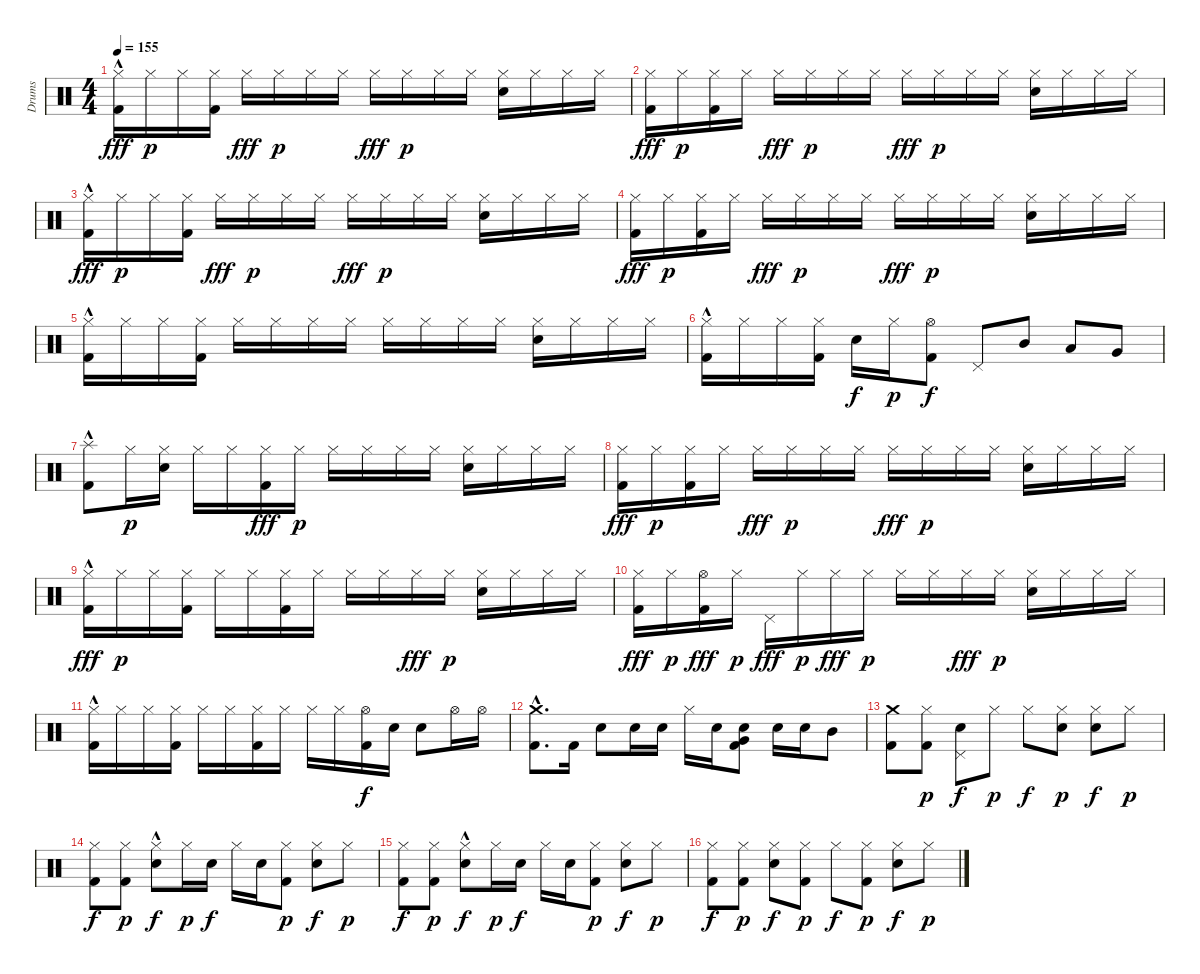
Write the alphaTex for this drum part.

\track ("Drums" "Drums") {instrument percussion}
\staff {score}
\articulation defaults
\ts (4 4)
\tempo 155
\clef neutral
\ks c
("Hi-Hat (closed)" "Kick (hit) 2"{hac}).16{dy fff} "Hi-Hat (closed)".16{dy p} "Hi-Hat (closed)".16 ("Hi-Hat (closed)" "Kick (hit) 2").16 "Hi-Hat (closed)".16{dy fff} "Hi-Hat (closed)".16{dy p} "Hi-Hat (closed)".16 "Hi-Hat (closed)".16 "Hi-Hat (closed)".16{dy fff} "Hi-Hat (closed)".16{dy p} "Hi-Hat (closed)".16 "Hi-Hat (closed)".16 ("Hi-Hat (closed)" "Snare (hit) 2").16 "Hi-Hat (closed)".16 "Hi-Hat (closed)".16 "Hi-Hat (closed)".16 |
("Hi-Hat (closed)" "Kick (hit) 2").16{dy fff} "Hi-Hat (closed)".16{dy p} ("Hi-Hat (closed)" "Kick (hit) 2").16 "Hi-Hat (closed)".16 "Hi-Hat (closed)".16{dy fff} "Hi-Hat (closed)".16{dy p} "Hi-Hat (closed)".16 "Hi-Hat (closed)".16 "Hi-Hat (closed)".16{dy fff} "Hi-Hat (closed)".16{dy p} "Hi-Hat (closed)".16 "Hi-Hat (closed)".16 ("Hi-Hat (closed)" "Snare (hit) 2").16 "Hi-Hat (closed)".16 "Hi-Hat (closed)".16 "Hi-Hat (closed)".16 |
("Hi-Hat (closed)" "Kick (hit) 2"{hac}).16{dy fff} "Hi-Hat (closed)".16{dy p} "Hi-Hat (closed)".16 ("Hi-Hat (closed)" "Kick (hit) 2").16 "Hi-Hat (closed)".16{dy fff} "Hi-Hat (closed)".16{dy p} "Hi-Hat (closed)".16 "Hi-Hat (closed)".16 "Hi-Hat (closed)".16{dy fff} "Hi-Hat (closed)".16{dy p} "Hi-Hat (closed)".16 "Hi-Hat (closed)".16 ("Hi-Hat (closed)" "Snare (hit) 2").16 "Hi-Hat (closed)".16 "Hi-Hat (closed)".16 "Hi-Hat (closed)".16 |
("Hi-Hat (closed)" "Kick (hit) 2").16{dy fff} "Hi-Hat (closed)".16{dy p} ("Hi-Hat (closed)" "Kick (hit) 2").16 "Hi-Hat (closed)".16 "Hi-Hat (closed)".16{dy fff} "Hi-Hat (closed)".16{dy p} "Hi-Hat (closed)".16 "Hi-Hat (closed)".16 "Hi-Hat (closed)".16{dy fff} "Hi-Hat (closed)".16{dy p} "Hi-Hat (closed)".16 "Hi-Hat (closed)".16 ("Hi-Hat (closed)" "Snare (hit) 2").16 "Hi-Hat (closed)".16 "Hi-Hat (closed)".16 "Hi-Hat (closed)".16 |
("Hi-Hat (closed)" "Kick (hit) 2"{hac}).16 "Hi-Hat (closed)".16 "Hi-Hat (closed)".16 ("Hi-Hat (closed)" "Kick (hit) 2").16 "Hi-Hat (closed)".16 "Hi-Hat (closed)".16 "Hi-Hat (closed)".16 "Hi-Hat (closed)".16 "Hi-Hat (closed)".16 "Hi-Hat (closed)".16 "Hi-Hat (closed)".16 "Hi-Hat (closed)".16 ("Hi-Hat (closed)" "Snare (hit) 2").16 "Hi-Hat (closed)".16 "Hi-Hat (closed)".16 "Hi-Hat (closed)".16 |
("Hi-Hat (closed)" "Kick (hit) 2"{hac}).16 "Hi-Hat (closed)".16 "Hi-Hat (closed)".16 ("Hi-Hat (closed)" "Kick (hit) 2").16 "Snare (hit) 2".16{dy f} "Hi-Hat (closed)".16{dy p} ("Kick (hit) 2" "Hi-Hat (open)").8{dy f} "Pedal Hi-Hat (hit)".8 "Mid Tom (hit)".8 "Low Tom (hit)".8 "Very Low Tom (hit)".8 |
("Kick (hit) 2"{hac} "Splash (hit)").8 "Hi-Hat (closed)".16{dy p} ("Snare (hit)" "Hi-Hat (closed)").16 "Hi-Hat (closed)".16 "Hi-Hat (closed)".16 ("Hi-Hat (closed)" "Kick (hit) 2").16{dy fff} "Hi-Hat (closed)".16{dy p} "Hi-Hat (closed)".16 "Hi-Hat (closed)".16 "Hi-Hat (closed)".16 "Hi-Hat (closed)".16 ("Hi-Hat (closed)" "Snare (hit) 2").16 "Hi-Hat (closed)".16 "Hi-Hat (closed)".16 "Hi-Hat (closed)".16 |
("Hi-Hat (closed)" "Kick (hit) 2").16{dy fff} "Hi-Hat (closed)".16{dy p} ("Hi-Hat (closed)" "Kick (hit) 2").16 "Hi-Hat (closed)".16 "Hi-Hat (closed)".16{dy fff} "Hi-Hat (closed)".16{dy p} "Hi-Hat (closed)".16 "Hi-Hat (closed)".16 "Hi-Hat (closed)".16{dy fff} "Hi-Hat (closed)".16{dy p} "Hi-Hat (closed)".16 "Hi-Hat (closed)".16 ("Hi-Hat (closed)" "Snare (hit) 2").16 "Hi-Hat (closed)".16 "Hi-Hat (closed)".16 "Hi-Hat (closed)".16 |
("Hi-Hat (closed)" "Kick (hit) 2"{hac}).16{dy fff} "Hi-Hat (closed)".16{dy p} "Hi-Hat (closed)".16 ("Hi-Hat (closed)" "Kick (hit) 2").16 "Hi-Hat (closed)".16 "Hi-Hat (closed)".16 ("Hi-Hat (closed)" "Kick (hit) 2").16 "Hi-Hat (closed)".16 "Hi-Hat (closed)".16 "Hi-Hat (closed)".16 "Hi-Hat (closed)".16{dy fff} "Hi-Hat (closed)".16{dy p} ("Hi-Hat (closed)" "Snare (hit) 2").16 "Hi-Hat (closed)".16 "Hi-Hat (closed)".16 "Hi-Hat (closed)".16 |
("Hi-Hat (closed)" "Kick (hit) 2").16{dy fff} "Hi-Hat (closed)".16{dy p} ("Hi-Hat (open)" "Kick (hit) 2").16{dy fff} "Hi-Hat (closed)".16{dy p} "Pedal Hi-Hat (hit)".16{dy fff} "Hi-Hat (closed)".16{dy p} "Hi-Hat (closed)".16{dy fff} "Hi-Hat (closed)".16{dy p} "Hi-Hat (closed)".16 "Hi-Hat (closed)".16 "Hi-Hat (closed)".16{dy fff} "Hi-Hat (closed)".16{dy p} ("Hi-Hat (closed)" "Snare (hit) 2").16 "Hi-Hat (closed)".16 "Hi-Hat (closed)".16 "Hi-Hat (closed)".16 |
("Hi-Hat (closed)" "Kick (hit) 2"{hac}).16 "Hi-Hat (closed)".16 "Hi-Hat (closed)".16 ("Hi-Hat (closed)" "Kick (hit) 2").16 "Hi-Hat (closed)".16 "Hi-Hat (closed)".16 ("Hi-Hat (closed)" "Kick (hit) 2").16 "Hi-Hat (closed)".16 "Hi-Hat (closed)".16 "Hi-Hat (closed)".16 ("Hi-Hat (open)" "Kick (hit) 2").16{dy f} "Snare (hit) 2".16 "Snare (hit) 2".8 "Hi-Hat (open)".16 "Hi-Hat (open)".16 |
("Crash medium (hit)" "Kick (hit) 2"{hac}).8{d} "Kick (hit) 2".16 "Snare (hit) 2".8 "Snare (hit) 2".16 "Snare (hit) 2".16 "Hi-Hat (closed)".16 "Snare (hit) 2".16 ("Snare (hit) 2" "Kick (hit) 2" "Very Low Tom (hit)").8 "Snare (hit) 2".16 "Snare (hit) 2".16 "Mid Tom (hit)".8 |
("Crash medium (hit)" "Kick (hit) 2").8 ("Kick (hit) 2" "Hi-Hat (closed)").8{dy p} ("Snare (hit) 2" "Pedal Hi-Hat (hit)").8{dy f} "Hi-Hat (closed)".8{dy p} "Hi-Hat (closed)".8{dy f} ("Snare (hit)" "Hi-Hat (closed)").8{dy p} ("Snare (hit) 2" "Hi-Hat (closed)").8{dy f} "Hi-Hat (closed)".8{dy p} |
("Hi-Hat (closed)" "Kick (hit) 2").8{dy f} ("Kick (hit) 2" "Hi-Hat (closed)").8{dy p} ("Hi-Hat (closed)" "Snare (hit) 2"{hac}).8{dy f} "Hi-Hat (closed)".16{dy p} "Snare (hit) 2".16{dy f} "Hi-Hat (closed)".16 "Snare (hit) 2".16 ("Kick (hit) 2" "Hi-Hat (closed)").8{dy p} ("Hi-Hat (closed)" "Snare (hit) 2").8{dy f} "Hi-Hat (closed)".8{dy p} |
("Hi-Hat (closed)" "Kick (hit) 2").8{dy f} ("Kick (hit) 2" "Hi-Hat (closed)").8{dy p} ("Hi-Hat (closed)" "Snare (hit) 2"{hac}).8{dy f} "Hi-Hat (closed)".16{dy p} "Snare (hit) 2".16{dy f} "Hi-Hat (closed)".16 "Snare (hit) 2".16 ("Kick (hit) 2" "Hi-Hat (closed)").8{dy p} ("Hi-Hat (closed)" "Snare (hit) 2").8{dy f} "Hi-Hat (closed)".8{dy p} |
("Hi-Hat (closed)" "Kick (hit) 2").8{dy f} ("Hi-Hat (closed)" "Kick (hit) 2").8{dy p} ("Hi-Hat (closed)" "Snare (hit) 2").8{dy f} ("Hi-Hat (closed)" "Kick (hit) 2").8{dy p} "Hi-Hat (closed)".8{dy f} ("Hi-Hat (closed)" "Kick (hit) 2").8{dy p} ("Hi-Hat (closed)" "Snare (hit) 2").8{dy f} "Hi-Hat (closed)".8{dy p}
